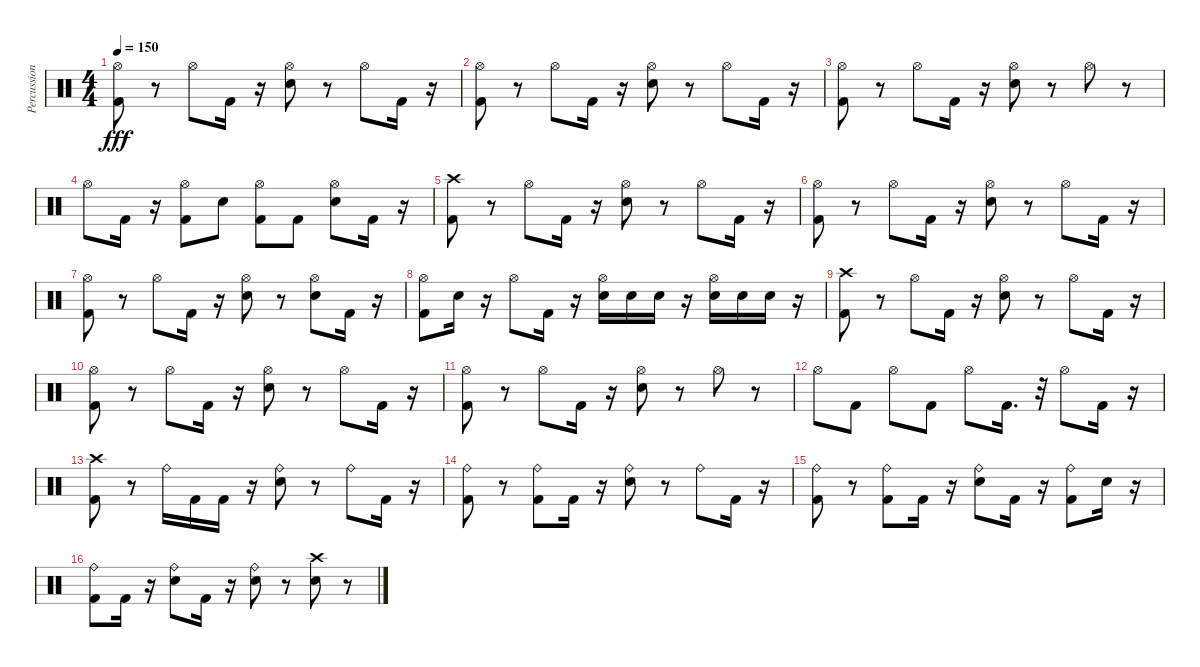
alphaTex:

\track ("Percussion" "Percussion") {instrument percussion}
\staff {score}
\articulation defaults
\ts (4 4)
\tempo 150
\clef neutral
\ks c
("Kick (hit) 2" "Hi-Hat (open)").8{dy fff} r.8 "Hi-Hat (open)".8 "Kick (hit) 2".16 r.16 ("Snare (hit) 2" "Hi-Hat (open)").8 r.8 "Hi-Hat (open)".8 "Kick (hit) 2".16 r.16 |
("Kick (hit) 2" "Hi-Hat (open)").8 r.8 "Hi-Hat (open)".8 "Kick (hit) 2".16 r.16 ("Snare (hit) 2" "Hi-Hat (open)").8 r.8 "Hi-Hat (open)".8 "Kick (hit) 2".16 r.16 |
("Kick (hit) 2" "Hi-Hat (open)").8 r.8 "Hi-Hat (open)".8 "Kick (hit) 2".16 r.16 ("Snare (hit) 2" "Hi-Hat (open)").8 r.8 "Hi-Hat (open)".8 r.8 |
"Hi-Hat (open)".8 "Kick (hit) 2".16 r.16 ("Kick (hit) 2" "Hi-Hat (open)").8 "Snare (hit) 2".8 ("Kick (hit) 2" "Hi-Hat (open)").8 "Kick (hit) 2".8 ("Snare (hit) 2" "Hi-Hat (open)").8 "Kick (hit) 2".16 r.16 |
("Kick (hit) 2" "Crash high (hit)").8 r.8 "Hi-Hat (open)".8 "Kick (hit) 2".16 r.16 ("Snare (hit) 2" "Hi-Hat (open)").8 r.8 "Hi-Hat (open)".8 "Kick (hit) 2".16 r.16 |
("Kick (hit) 2" "Hi-Hat (open)").8 r.8 "Hi-Hat (open)".8 "Kick (hit) 2".16 r.16 ("Snare (hit) 2" "Hi-Hat (open)").8 r.8 "Hi-Hat (open)".8 "Kick (hit) 2".16 r.16 |
("Kick (hit) 2" "Hi-Hat (open)").8 r.8 "Hi-Hat (open)".8 "Kick (hit) 2".16 r.16 ("Snare (hit) 2" "Hi-Hat (open)").8 r.8 ("Hi-Hat (open)" "Snare (hit) 2").8 "Kick (hit) 2".16 r.16 |
("Hi-Hat (open)" "Kick (hit) 2").8 "Snare (hit) 2".16 r.16 "Hi-Hat (open)".8 "Kick (hit) 2".16 r.16 ("Hi-Hat (open)" "Snare (hit) 2").16 "Snare (hit) 2".16 "Snare (hit) 2".16 r.16 ("Hi-Hat (open)" "Snare (hit) 2").16 "Snare (hit) 2".16 "Snare (hit) 2".16 r.16 |
("Crash high (hit)" "Kick (hit) 2").8 r.8 "Hi-Hat (open)".8 "Kick (hit) 2".16 r.16 ("Snare (hit) 2" "Hi-Hat (open)").8 r.8 "Hi-Hat (open)".8 "Kick (hit) 2".16 r.16 |
("Kick (hit) 2" "Hi-Hat (open)").8 r.8 "Hi-Hat (open)".8 "Kick (hit) 2".16 r.16 ("Snare (hit) 2" "Hi-Hat (open)").8 r.8 "Hi-Hat (open)".8 "Kick (hit) 2".16 r.16 |
("Kick (hit) 2" "Hi-Hat (open)").8 r.8 "Hi-Hat (open)".8 "Kick (hit) 2".16 r.16 ("Snare (hit) 2" "Hi-Hat (open)").8 r.8 "Hi-Hat (open)".8 r.8 |
"Hi-Hat (open)".8 "Kick (hit) 2".8 "Hi-Hat (open)".8 "Kick (hit) 2".8 "Hi-Hat (open)".8 "Kick (hit) 2".16{d} r.32 "Hi-Hat (open)".8 "Kick (hit) 2".16 r.16 |
("Kick (hit) 2" "Crash high (hit)").8 r.8 "Ride (bell)".16 "Kick (hit) 2".16 "Kick (hit) 2".16 r.16 ("Snare (hit) 2" "Ride (bell)").8 r.8 "Ride (bell)".8 "Kick (hit) 2".16 r.16 |
("Kick (hit) 2" "Ride (bell)").8 r.8 ("Ride (bell)" "Kick (hit) 2").8 "Kick (hit) 2".16 r.16 ("Snare (hit) 2" "Ride (bell)").8 r.8 "Ride (bell)".8 "Kick (hit) 2".16 r.16 |
("Kick (hit) 2" "Ride (bell)").8 r.8 ("Ride (bell)" "Kick (hit) 2").8 "Kick (hit) 2".16 r.16 ("Snare (hit) 2" "Ride (bell)").8 "Kick (hit) 2".16 r.16 ("Ride (bell)" "Kick (hit) 2").8 "Snare (hit) 2".16 r.16 |
("Ride (bell)" "Kick (hit) 2").8 "Kick (hit) 2".16 r.16 ("Ride (bell)" "Snare (hit) 2").8 "Kick (hit) 2".16 r.16 ("Ride (bell)" "Snare (hit) 2").8 r.8 ("Snare (hit) 2" "Crash high (hit)").8 r.8
